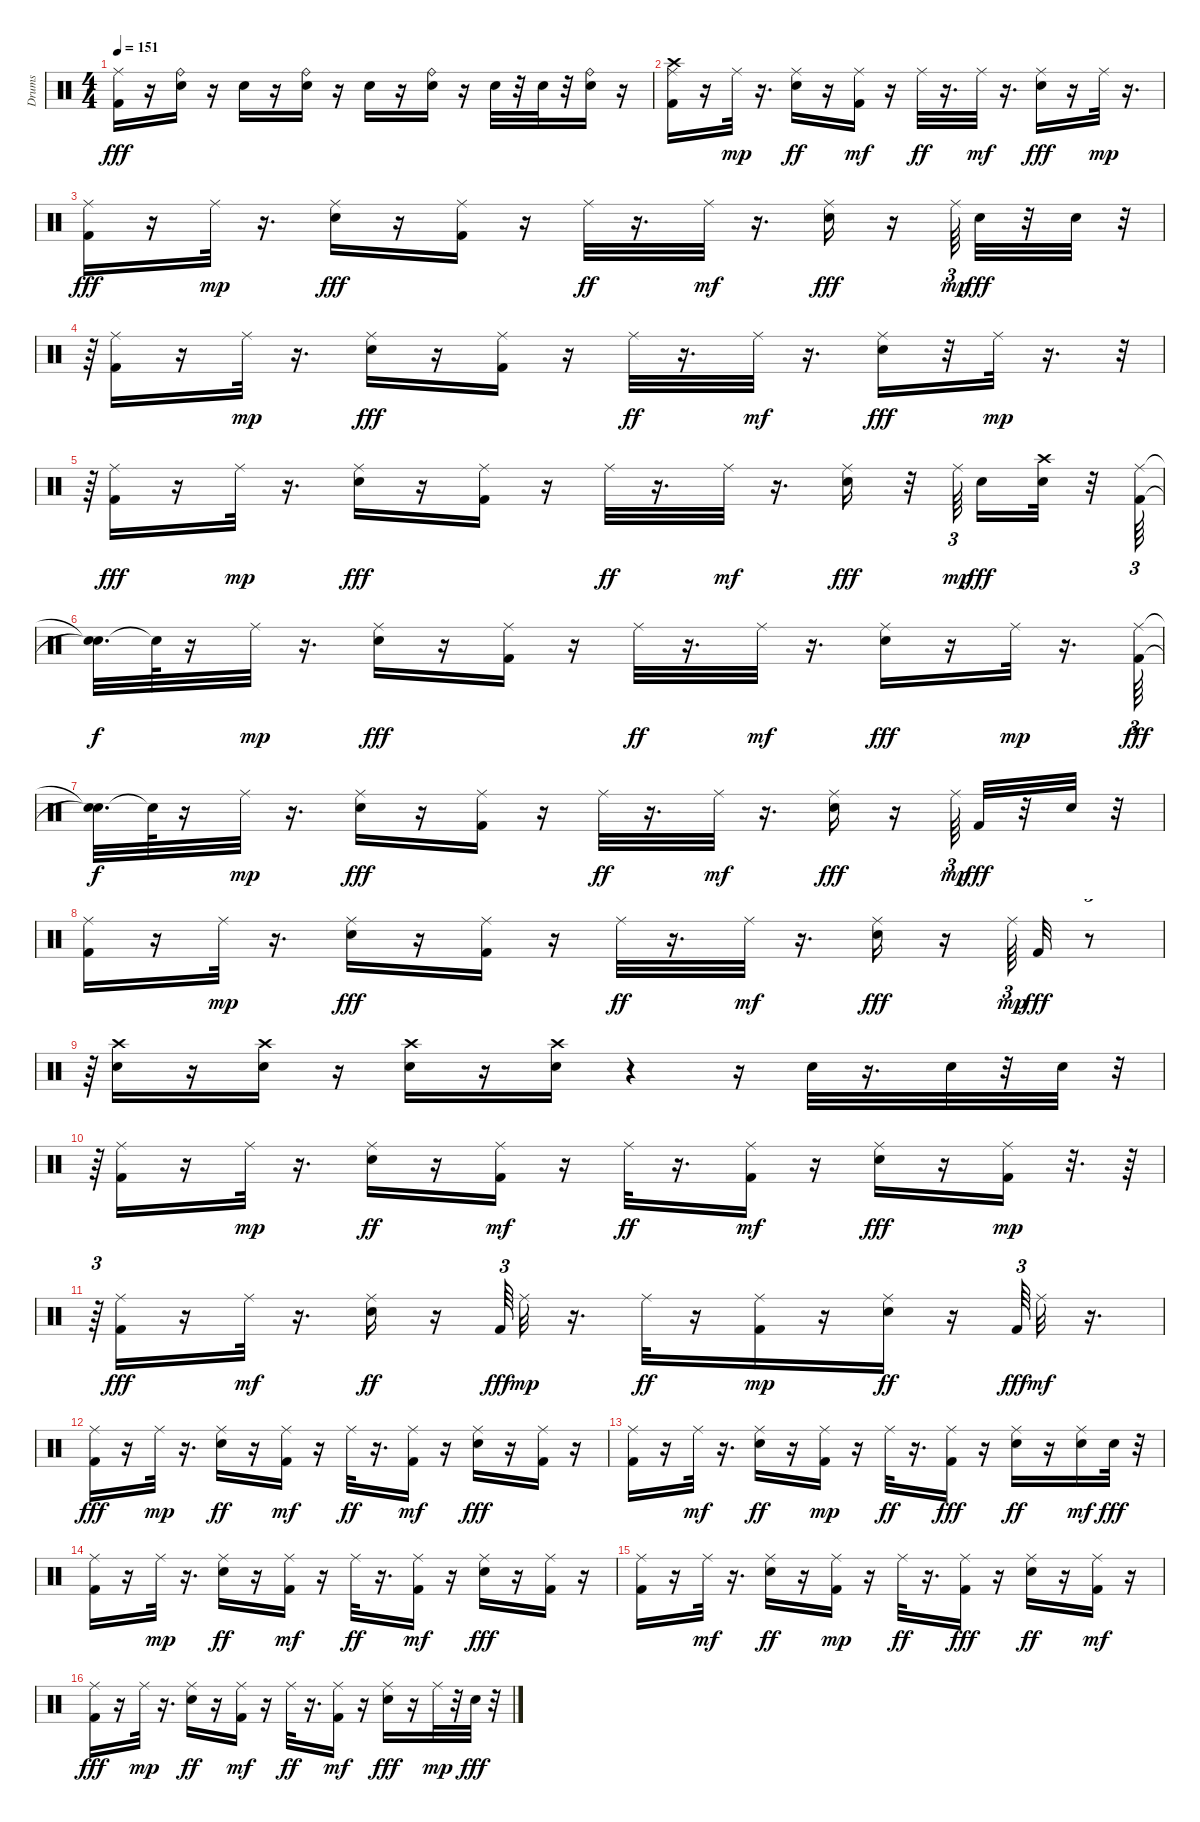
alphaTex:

\track ("Drums" "Drums") {instrument percussion}
\staff {score}
\articulation defaults
\ts (4 4)
\tempo 151
\clef neutral
\ks c
("Ride (middle)" "Kick (hit) 2").16{dy fff} r.16 ("Snare (hit) 2" "Ride (bell)").16 r.16 "Snare (hit) 2".16 r.16 ("Snare (hit) 2" "Ride (bell)").16 r.16 "Snare (hit) 2".16 r.16 ("Snare (hit) 2" "Ride (bell)").16 r.16 "Snare (hit) 2".32 r.32 "Snare (hit) 2".32 r.32 ("Snare (hit) 2" "Ride (bell)").16 r.16 |
("Kick (hit) 2" "Crash high (hit)" "Ride (middle)").16 r.16 "Ride (middle)".32{dy mp} r.16{d} ("Snare (hit) 2" "Ride (middle)").16{dy ff} r.16 ("Kick (hit) 2" "Ride (middle)").16{dy mf} r.16 "Ride (middle)".32{dy ff} r.16{d} "Ride (middle)".32{dy mf} r.16{d} ("Snare (hit) 2" "Ride (middle)").16{dy fff} r.16 "Ride (middle)".32{dy mp} r.16{d} |
("Kick (hit) 2" "Ride (middle)").16{dy fff} r.16 "Ride (middle)".32{dy mp} r.16{d} ("Ride (middle)" "Snare (hit) 2").16{dy fff} r.16 ("Ride (middle)" "Kick (hit) 2").16 r.16 "Ride (middle)".32{dy ff} r.16{d} "Ride (middle)".32{dy mf} r.16{d} ("Ride (middle)" "Snare (hit) 2").16{dy fff} r.16 "Ride (middle)".64{tu (3 2) dy mp} "Snare (hit) 2".32{dy fff} r.32 "Snare (hit) 2".32 r.32{tu (3 2)} |
r.64{tu (3 2)} ("Kick (hit) 2" "Ride (middle)").16 r.16 "Ride (middle)".32{dy mp} r.16{d} ("Ride (middle)" "Snare (hit) 2").16{dy fff} r.16 ("Ride (middle)" "Kick (hit) 2").16 r.16 "Ride (middle)".32{dy ff} r.16{d} "Ride (middle)".32{dy mf} r.16{d} ("Ride (middle)" "Snare (hit) 2").16{dy fff} r.32 "Ride (middle)".32{dy mp} r.16{d} r.32{tu (3 2)} |
r.64{tu (3 2)} ("Kick (hit) 2" "Ride (middle)").16{dy fff} r.16 "Ride (middle)".32{dy mp} r.16{d} ("Ride (middle)" "Snare (hit) 2").16{dy fff} r.16 ("Ride (middle)" "Kick (hit) 2").16 r.16 "Ride (middle)".32{dy ff} r.16{d} "Ride (middle)".32{dy mf} r.16{d} ("Ride (middle)" "Snare (hit) 2").16{dy fff} r.32 "Ride (middle)".64{tu (3 2) dy mp beam splitsecondary} "Snare (hit) 2".16{dy fff} ("Crash high (hit)" "Snare (hit) 2").32 r.32 ("Kick (hit) 2" "Ride (middle)").64{tu (3 2)} |
("Snare (hit)"{t} "Snare (hit)"{t}).32{d dy f} "Snare (hit)"{t}.64 r.16 "Ride (middle)".32{dy mp} r.16{d} ("Ride (middle)" "Snare (hit) 2").16{dy fff} r.16 ("Ride (middle)" "Kick (hit) 2").16 r.16 "Ride (middle)".32{dy ff} r.16{d} "Ride (middle)".32{dy mf} r.16{d} ("Ride (middle)" "Snare (hit) 2").16{dy fff} r.16 "Ride (middle)".32{dy mp} r.16{d} ("Kick (hit) 2" "Ride (middle)").64{tu (3 2) dy fff} |
("Snare (hit)"{t} "Snare (hit)"{t}).32{d dy f} "Snare (hit)"{t}.64 r.16 "Ride (middle)".32{dy mp} r.16{d} ("Ride (middle)" "Snare (hit) 2").16{dy fff} r.16 ("Ride (middle)" "Kick (hit) 2").16 r.16 "Ride (middle)".32{dy ff} r.16{d} "Ride (middle)".32{dy mf} r.16{d} ("Ride (middle)" "Snare (hit) 2").16{dy fff} r.16 "Ride (middle)".64{tu (3 2) dy mp} "Kick (hit) 2".32{dy fff} r.32 "Snare (hit) 2".32 r.32 |
("Kick (hit) 2" "Ride (middle)").16 r.16 "Ride (middle)".32{dy mp} r.16{d} ("Ride (middle)" "Snare (hit) 2").16{dy fff} r.16 ("Ride (middle)" "Kick (hit) 2").16 r.16 "Ride (middle)".32{dy ff} r.16{d} "Ride (middle)".32{dy mf} r.16{d} ("Ride (middle)" "Snare (hit) 2").16{dy fff} r.16 "Ride (middle)".64{tu (3 2) dy mp} "Kick (hit) 2".32{dy fff} r.8{tu (3 2)} |
r.64{tu (3 2)} ("Crash high (hit)" "Snare (hit) 2").16 r.16 ("Crash high (hit)" "Snare (hit) 2").16 r.16 ("Crash high (hit)" "Snare (hit) 2").16 r.16 ("Crash high (hit)" "Snare (hit) 2").16 r.4 r.16 "Snare (hit) 2".32 r.16{d} "Snare (hit) 2".32 r.32 "Snare (hit) 2".32 r.32{tu (3 2)} |
r.64{tu (3 2)} ("Kick (hit) 2" "Ride (middle)").16 r.16 "Ride (middle)".32{dy mp} r.16{d} ("Snare (hit) 2" "Ride (middle)").16{dy ff} r.16 ("Kick (hit) 2" "Ride (middle)").16{dy mf} r.16 "Ride (middle)".32{dy ff} r.16{d} ("Kick (hit) 2" "Ride (middle)").16{dy mf} r.16 ("Snare (hit) 2" "Ride (middle)").16{dy fff} r.16 ("Kick (hit) 2" "Ride (middle)").16{dy mp} r.32{d} r.64 |
r.64{tu (3 2)} ("Kick (hit) 2" "Ride (middle)").16{dy fff} r.16 "Ride (middle)".32{dy mf} r.16{d} ("Snare (hit) 2" "Ride (middle)").16{dy ff} r.16 "Kick (hit) 2".64{tu (3 2) dy fff} "Ride (middle)".32{dy mp} r.16{d} "Ride (middle)".32{dy ff} r.16 ("Kick (hit) 2" "Ride (middle)").16{dy mp} r.16 ("Snare (hit) 2" "Ride (middle)").16{dy ff} r.16 "Kick (hit) 2".64{tu (3 2) dy fff} "Ride (middle)".32{dy mf} r.16{d} |
("Kick (hit) 2" "Ride (middle)").16{dy fff} r.16 "Ride (middle)".32{dy mp} r.16{d} ("Snare (hit) 2" "Ride (middle)").16{dy ff} r.16 ("Kick (hit) 2" "Ride (middle)").16{dy mf} r.16 "Ride (middle)".32{dy ff} r.16{d} ("Kick (hit) 2" "Ride (middle)").16{dy mf} r.16 ("Ride (middle)" "Snare (hit) 2").16{dy fff} r.16 ("Ride (middle)" "Kick (hit) 2").16 r.16 |
("Ride (middle)" "Kick (hit) 2").16 r.16 "Ride (middle)".32{dy mf} r.16{d} ("Snare (hit) 2" "Ride (middle)").16{dy ff} r.16 ("Kick (hit) 2" "Ride (middle)").16{dy mp} r.16 "Ride (middle)".32{dy ff} r.16{d} ("Ride (middle)" "Kick (hit) 2").16{dy fff} r.16 ("Snare (hit) 2" "Ride (middle)").16{dy ff} r.16 ("Snare (hit) 2" "Ride (middle)").16{dy mf} "Snare (hit) 2".32{dy fff} r.32 |
("Kick (hit) 2" "Ride (middle)").16 r.16 "Ride (middle)".32{dy mp} r.16{d} ("Snare (hit) 2" "Ride (middle)").16{dy ff} r.16 ("Kick (hit) 2" "Ride (middle)").16{dy mf} r.16 "Ride (middle)".32{dy ff} r.16{d} ("Kick (hit) 2" "Ride (middle)").16{dy mf} r.16 ("Ride (middle)" "Snare (hit) 2").16{dy fff} r.16 ("Ride (middle)" "Kick (hit) 2").16 r.16 |
("Ride (middle)" "Kick (hit) 2").16 r.16 "Ride (middle)".32{dy mf} r.16{d} ("Snare (hit) 2" "Ride (middle)").16{dy ff} r.16 ("Kick (hit) 2" "Ride (middle)").16{dy mp} r.16 "Ride (middle)".32{dy ff} r.16{d} ("Ride (middle)" "Kick (hit) 2").16{dy fff} r.16 ("Snare (hit) 2" "Ride (middle)").16{dy ff} r.16 ("Kick (hit) 2" "Ride (middle)").16{dy mf} r.16 |
("Kick (hit) 2" "Ride (middle)").16{dy fff} r.16 "Ride (middle)".32{dy mp} r.16{d} ("Snare (hit) 2" "Ride (middle)").16{dy ff} r.16 ("Kick (hit) 2" "Ride (middle)").16{dy mf} r.16 "Ride (middle)".32{dy ff} r.16{d} ("Kick (hit) 2" "Ride (middle)").16{dy mf} r.16 ("Ride (middle)" "Snare (hit) 2").16{dy fff} r.16 "Ride (middle)".32{dy mp} r.32 "Snare (hit) 2".32{dy fff} r.32
